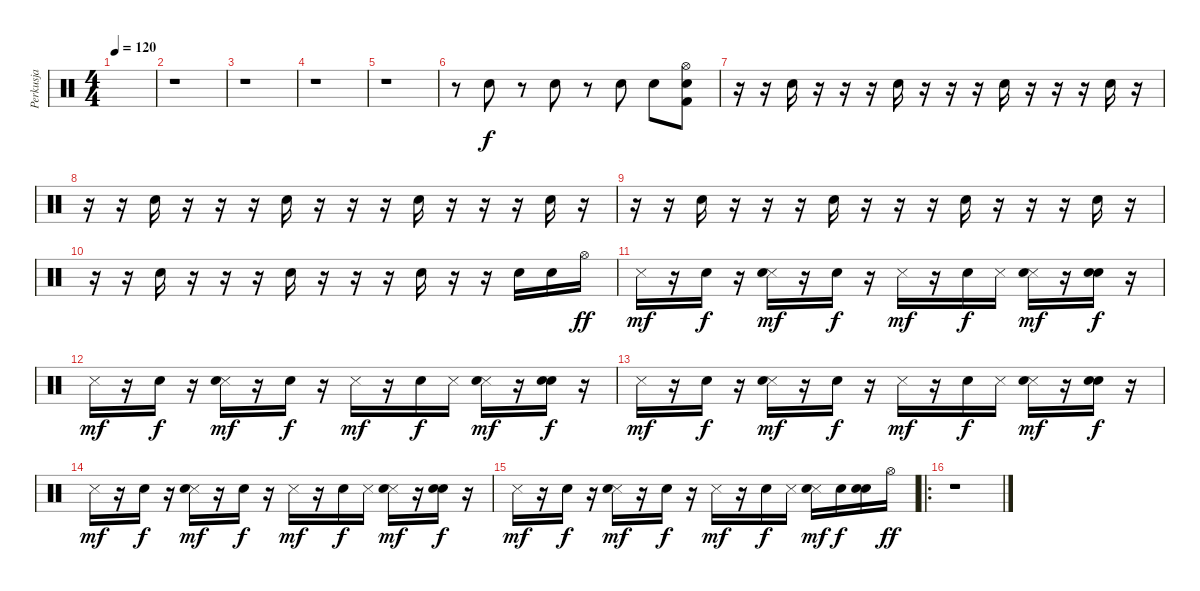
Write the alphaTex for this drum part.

\track ("Perkusja" "Perkusja") {instrument percussion}
\staff {score}
\articulation defaults
\ts (4 4)
\tempo 120
\clef neutral
\ks c
|
r.1 |
r.1 |
r.1 |
r.1 |
r.8 "Electric Snare (hit)".8 r.8 "Electric Snare (hit)".8 r.8 "Electric Snare (hit)".8 "Electric Snare (hit)".8 ("Electric Snare (hit)" "Kick (hit) 2" "Hi-Hat (open)").8 |
r.16 r.16 "Electric Snare (hit)".16 r.16 r.16 r.16 "Snare (hit) 2".16 r.16 r.16 r.16 "Electric Snare (hit)".16 r.16 r.16 r.16 "Snare (hit) 2".16 r.16 |
r.16 r.16 "Electric Snare (hit)".16 r.16 r.16 r.16 "Snare (hit) 2".16 r.16 r.16 r.16 "Electric Snare (hit)".16 r.16 r.16 r.16 "Snare (hit) 2".16 r.16 |
r.16 r.16 "Electric Snare (hit)".16 r.16 r.16 r.16 "Snare (hit) 2".16 r.16 r.16 r.16 "Electric Snare (hit)".16 r.16 r.16 r.16 "Snare (hit) 2".16 r.16 |
r.16 r.16 "Electric Snare (hit)".16 r.16 r.16 r.16 "Snare (hit) 2".16 r.16 r.16 r.16 "Electric Snare (hit)".16 r.16 r.16 "Electric Snare (hit)".16 "Snare (hit) 2".16 "Hi-Hat (open)".16{dy ff} |
"Metronome (hit)".16{dy mf} r.16 "Electric Snare (hit)".16{dy f} r.16 ("Snare (side stick) 3" "Metronome (bell)").16{dy mf} r.16 "Snare (hit) 2".16{dy f} r.16 "Metronome (hit)".16{dy mf} r.16 "Electric Snare (hit)".16{dy f} "Snare (side stick) 3".16 ("Snare (side stick) 3" "Metronome (bell)").16{dy mf} r.16 ("Snare (hit) 2" "Metronome (bell)").16{dy f} r.16 |
"Metronome (hit)".16{dy mf} r.16 "Electric Snare (hit)".16{dy f} r.16 ("Snare (side stick) 3" "Metronome (bell)").16{dy mf} r.16 "Snare (hit) 2".16{dy f} r.16 "Metronome (hit)".16{dy mf} r.16 "Electric Snare (hit)".16{dy f} "Snare (side stick) 3".16 ("Snare (side stick) 3" "Metronome (bell)").16{dy mf} r.16 ("Snare (hit) 2" "Metronome (bell)").16{dy f} r.16 |
"Metronome (hit)".16{dy mf} r.16 "Electric Snare (hit)".16{dy f} r.16 ("Snare (side stick) 3" "Metronome (bell)").16{dy mf} r.16 "Snare (hit) 2".16{dy f} r.16 "Metronome (hit)".16{dy mf} r.16 "Electric Snare (hit)".16{dy f} "Snare (side stick) 3".16 ("Snare (side stick) 3" "Metronome (bell)").16{dy mf} r.16 ("Snare (hit) 2" "Metronome (bell)").16{dy f} r.16 |
"Metronome (hit)".16{dy mf} r.16 "Electric Snare (hit)".16{dy f} r.16 ("Snare (side stick) 3" "Metronome (bell)").16{dy mf} r.16 "Snare (hit) 2".16{dy f} r.16 "Metronome (hit)".16{dy mf} r.16 "Electric Snare (hit)".16{dy f} "Snare (side stick) 3".16 ("Snare (side stick) 3" "Metronome (bell)").16{dy mf} r.16 ("Snare (hit) 2" "Metronome (bell)").16{dy f} r.16 |
"Metronome (hit)".16{dy mf} r.16 "Electric Snare (hit)".16{dy f} r.16 ("Snare (side stick) 3" "Metronome (bell)").16{dy mf} r.16 "Snare (hit) 2".16{dy f} r.16 "Metronome (hit)".16{dy mf} r.16 "Electric Snare (hit)".16{dy f} "Snare (side stick) 3".16 ("Snare (side stick) 3" "Metronome (bell)").16{dy mf} "Electric Snare (hit)".16{dy f} ("Snare (hit) 2" "Metronome (bell)").16 "Hi-Hat (open)".16{dy ff} |
\ro
r.1
